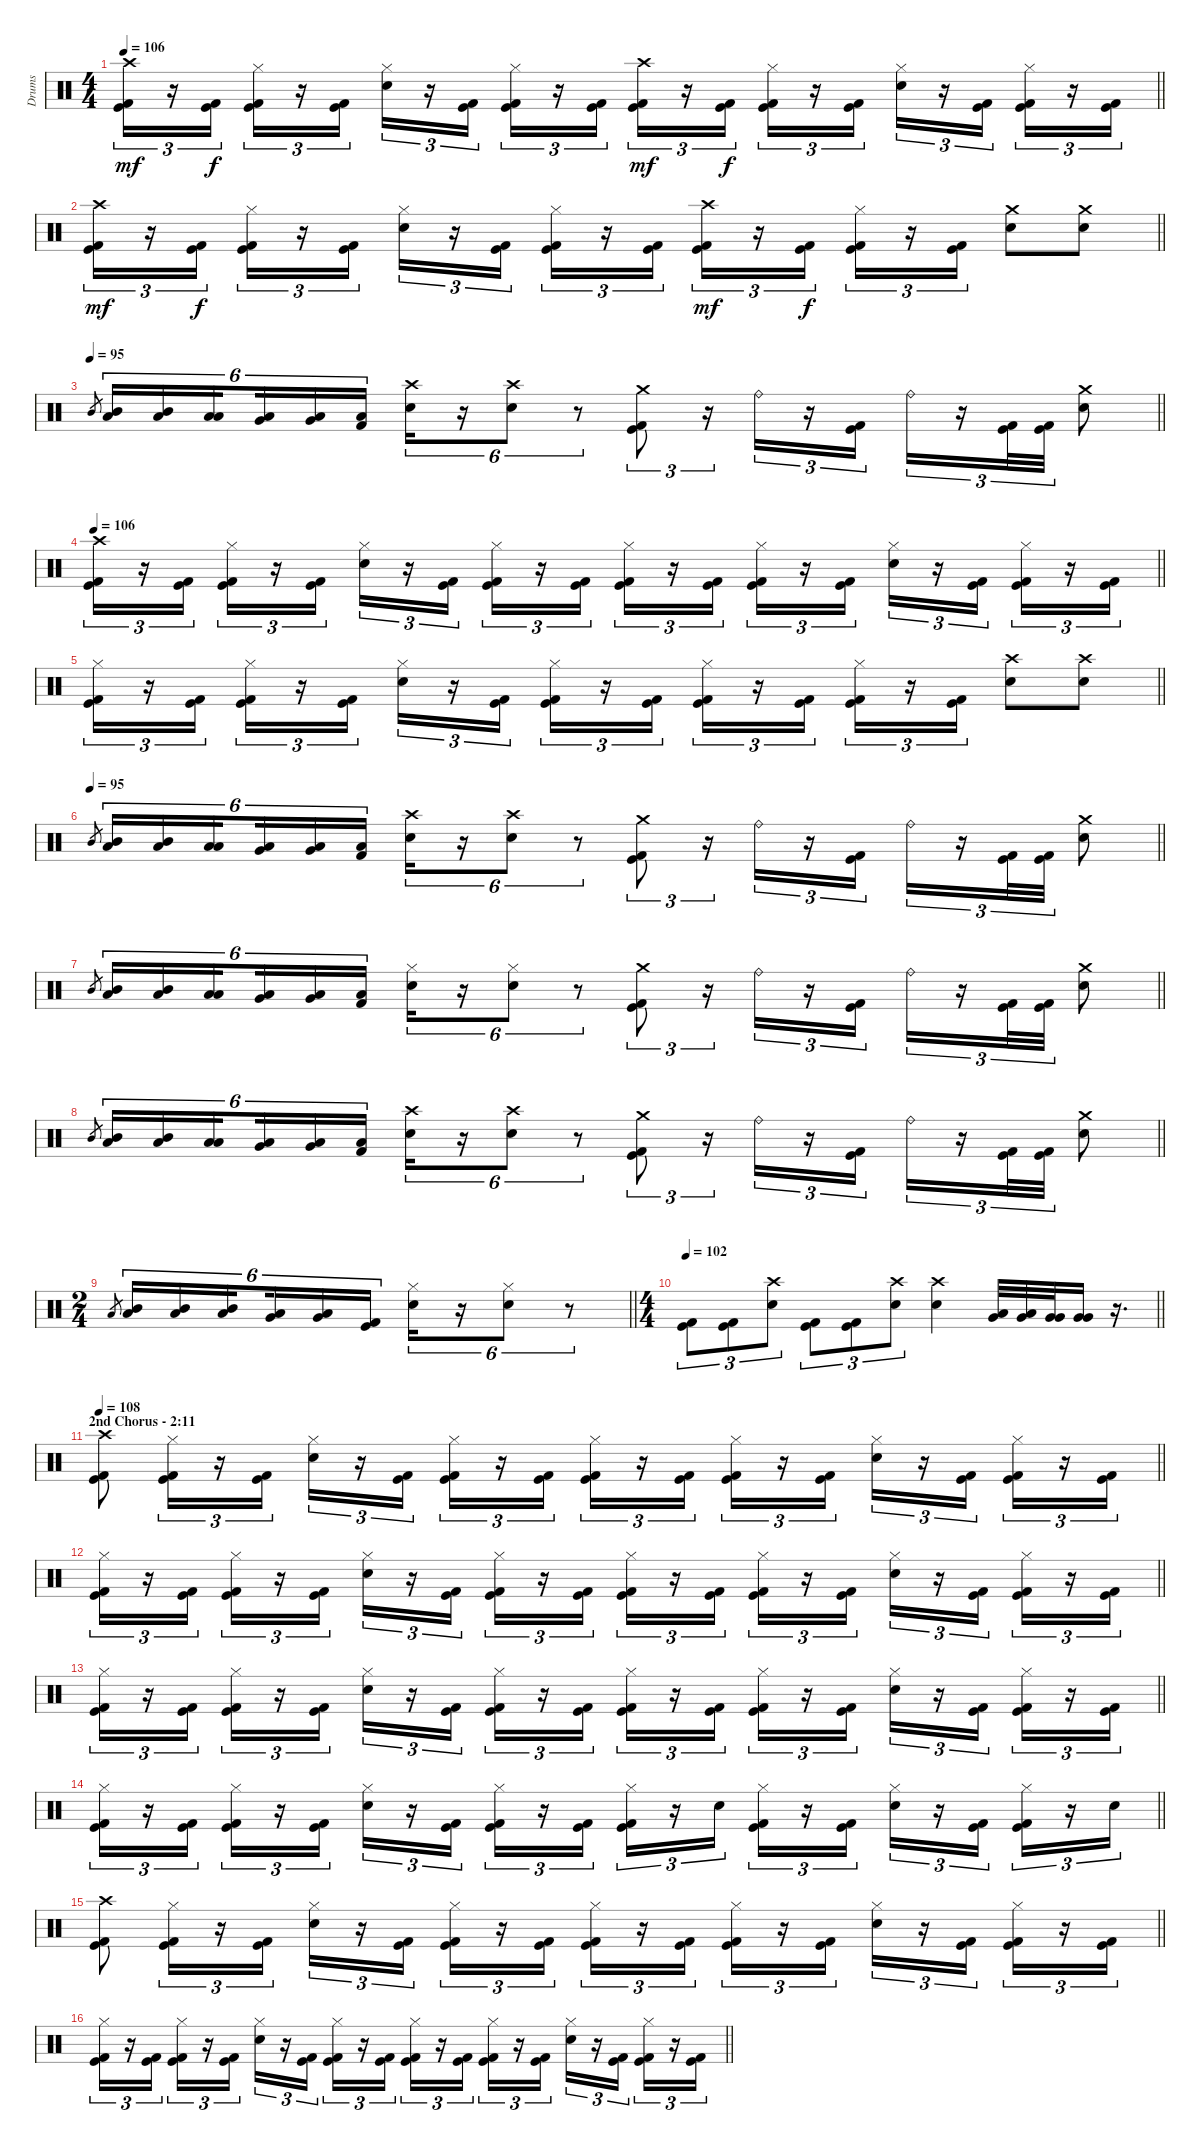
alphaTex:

\track ("Drums" "Drums") {instrument percussion}
\staff {score}
\articulation defaults
\ts (4 4)
\tempo 106
\clef neutral
\barLineRight lightlight
\ks c
("Crash high (hit)" "Kick (hit)" "Kick (hit) 2").16{tu (3 2) dy mf} r.16{tu (3 2)} ("Kick (hit)" "Kick (hit) 2").16{tu (3 2) dy f} ("Hi-Hat (closed)" "Kick (hit)" "Kick (hit) 2").16{tu (3 2)} r.16{tu (3 2)} ("Kick (hit)" "Kick (hit) 2").16{tu (3 2)} ("Hi-Hat (closed)" "Electric Snare (hit)").16{tu (3 2)} r.16{tu (3 2)} ("Kick (hit)" "Kick (hit) 2").16{tu (3 2)} ("Hi-Hat (closed)" "Kick (hit)" "Kick (hit) 2").16{tu (3 2)} r.16{tu (3 2)} ("Kick (hit)" "Kick (hit) 2").16{tu (3 2)} ("Crash high (hit)" "Kick (hit)" "Kick (hit) 2").16{tu (3 2) dy mf} r.16{tu (3 2)} ("Kick (hit)" "Kick (hit) 2").16{tu (3 2) dy f} ("Hi-Hat (closed)" "Kick (hit)" "Kick (hit) 2").16{tu (3 2)} r.16{tu (3 2)} ("Kick (hit)" "Kick (hit) 2").16{tu (3 2)} ("Hi-Hat (closed)" "Electric Snare (hit)").16{tu (3 2)} r.16{tu (3 2)} ("Kick (hit)" "Kick (hit) 2").16{tu (3 2)} ("Hi-Hat (closed)" "Kick (hit)" "Kick (hit) 2").16{tu (3 2)} r.16{tu (3 2)} ("Kick (hit)" "Kick (hit) 2").16{tu (3 2)} |
\barLineRight lightlight
("Crash high (hit)" "Kick (hit)" "Kick (hit) 2").16{tu (3 2) dy mf} r.16{tu (3 2)} ("Kick (hit)" "Kick (hit) 2").16{tu (3 2) dy f} ("Hi-Hat (closed)" "Kick (hit)" "Kick (hit) 2").16{tu (3 2)} r.16{tu (3 2)} ("Kick (hit)" "Kick (hit) 2").16{tu (3 2)} ("Hi-Hat (closed)" "Electric Snare (hit)").16{tu (3 2)} r.16{tu (3 2)} ("Kick (hit)" "Kick (hit) 2").16{tu (3 2)} ("Hi-Hat (closed)" "Kick (hit)" "Kick (hit) 2").16{tu (3 2)} r.16{tu (3 2)} ("Kick (hit)" "Kick (hit) 2").16{tu (3 2)} ("Crash high (hit)" "Kick (hit)" "Kick (hit) 2").16{tu (3 2) dy mf} r.16{tu (3 2)} ("Kick (hit)" "Kick (hit) 2").16{tu (3 2) dy f} ("Hi-Hat (closed)" "Kick (hit)" "Kick (hit) 2").16{tu (3 2)} r.16{tu (3 2)} ("Kick (hit)" "Kick (hit) 2").16{tu (3 2)} ("Crash medium (hit)" "Electric Snare (hit)").8 ("Crash medium (hit)" "Electric Snare (hit)").8 |
\tempo 95
\barLineRight lightlight "Mid Tom (hit)".8{gr}
("Mid Tom (hit)" "Low Tom (hit)").16{tu (6 4)} ("Mid Tom (hit)" "Low Tom (hit)").16{tu (6 4)} ("Low Tom (hit)" "Low Tom (hit)").16{tu (6 4) beam splitsecondary} ("Very Low Tom (hit)" "Low Tom (hit)").16{tu (6 4)} ("Very Low Tom (hit)" "Low Tom (hit)").16{tu (6 4)} ("Low Floor Tom (hit)" "Kick (hit) 2").16{tu (6 4)} ("Crash high (hit)" "Electric Snare (hit)").16{tu (6 4)} r.16{tu (6 4)} ("Crash high (hit)" "Electric Snare (hit)").8{tu (6 4)} r.8{tu (6 4)} ("Crash medium (hit)" "Kick (hit)" "Kick (hit) 2").8{tu (3 2)} r.16{tu (3 2)} "Ride (bell)".16{tu (3 2)} r.16{tu (3 2)} ("Kick (hit)" "Kick (hit) 2").16{tu (3 2)} "Ride (bell)".16{tu (3 2)} r.16{tu (3 2)} ("Kick (hit)" "Kick (hit) 2").32{tu (3 2)} ("Kick (hit)" "Kick (hit) 2").32{tu (3 2)} ("Crash medium (hit)" "Electric Snare (hit)").8 |
\tempo 106
\barLineRight lightlight
("Crash high (hit)" "Kick (hit)" "Kick (hit) 2").16{tu (3 2)} r.16{tu (3 2)} ("Kick (hit)" "Kick (hit) 2").16{tu (3 2)} ("Hi-Hat (closed)" "Kick (hit)" "Kick (hit) 2").16{tu (3 2)} r.16{tu (3 2)} ("Kick (hit)" "Kick (hit) 2").16{tu (3 2)} ("Hi-Hat (closed)" "Electric Snare (hit)").16{tu (3 2)} r.16{tu (3 2)} ("Kick (hit)" "Kick (hit) 2").16{tu (3 2)} ("Hi-Hat (closed)" "Kick (hit)" "Kick (hit) 2").16{tu (3 2)} r.16{tu (3 2)} ("Kick (hit)" "Kick (hit) 2").16{tu (3 2)} ("Hi-Hat (closed)" "Kick (hit)" "Kick (hit) 2").16{tu (3 2)} r.16{tu (3 2)} ("Kick (hit)" "Kick (hit) 2").16{tu (3 2)} ("Hi-Hat (closed)" "Kick (hit)" "Kick (hit) 2").16{tu (3 2)} r.16{tu (3 2)} ("Kick (hit)" "Kick (hit) 2").16{tu (3 2)} ("Hi-Hat (closed)" "Electric Snare (hit)").16{tu (3 2)} r.16{tu (3 2)} ("Kick (hit)" "Kick (hit) 2").16{tu (3 2)} ("Hi-Hat (closed)" "Kick (hit)" "Kick (hit) 2").16{tu (3 2)} r.16{tu (3 2)} ("Kick (hit)" "Kick (hit) 2").16{tu (3 2)} |
\barLineRight lightlight
("Hi-Hat (closed)" "Kick (hit)" "Kick (hit) 2").16{tu (3 2)} r.16{tu (3 2)} ("Kick (hit)" "Kick (hit) 2").16{tu (3 2)} ("Hi-Hat (closed)" "Kick (hit)" "Kick (hit) 2").16{tu (3 2)} r.16{tu (3 2)} ("Kick (hit)" "Kick (hit) 2").16{tu (3 2)} ("Hi-Hat (closed)" "Electric Snare (hit)").16{tu (3 2)} r.16{tu (3 2)} ("Kick (hit)" "Kick (hit) 2").16{tu (3 2)} ("Hi-Hat (closed)" "Kick (hit)" "Kick (hit) 2").16{tu (3 2)} r.16{tu (3 2)} ("Kick (hit)" "Kick (hit) 2").16{tu (3 2)} ("Hi-Hat (closed)" "Kick (hit)" "Kick (hit) 2").16{tu (3 2)} r.16{tu (3 2)} ("Kick (hit)" "Kick (hit) 2").16{tu (3 2)} ("Hi-Hat (closed)" "Kick (hit)" "Kick (hit) 2").16{tu (3 2)} r.16{tu (3 2)} ("Kick (hit)" "Kick (hit) 2").16{tu (3 2)} ("Crash high (hit)" "Electric Snare (hit)").8 ("Crash high (hit)" "Electric Snare (hit)").8 |
\tempo 95
\barLineRight lightlight "Mid Tom (hit)".8{gr}
("Mid Tom (hit)" "Low Tom (hit)").16{tu (6 4)} ("Mid Tom (hit)" "Low Tom (hit)").16{tu (6 4)} ("Low Tom (hit)" "Low Tom (hit)").16{tu (6 4) beam splitsecondary} ("Very Low Tom (hit)" "Low Tom (hit)").16{tu (6 4)} ("Very Low Tom (hit)" "Low Tom (hit)").16{tu (6 4)} ("Low Floor Tom (hit)" "Kick (hit) 2").16{tu (6 4)} ("Crash high (hit)" "Electric Snare (hit)").16{tu (6 4)} r.16{tu (6 4)} ("Crash high (hit)" "Electric Snare (hit)").8{tu (6 4)} r.8{tu (6 4)} ("Crash medium (hit)" "Kick (hit)" "Kick (hit) 2").8{tu (3 2)} r.16{tu (3 2)} "Ride (bell)".16{tu (3 2)} r.16{tu (3 2)} ("Kick (hit)" "Kick (hit) 2").16{tu (3 2)} "Ride (bell)".16{tu (3 2)} r.16{tu (3 2)} ("Kick (hit)" "Kick (hit) 2").32{tu (3 2)} ("Kick (hit)" "Kick (hit) 2").32{tu (3 2)} ("Crash medium (hit)" "Electric Snare (hit)").8 |
\barLineRight lightlight "Mid Tom (hit)".8{gr}
("Mid Tom (hit)" "Low Tom (hit)").16{tu (6 4)} ("Mid Tom (hit)" "Low Tom (hit)").16{tu (6 4)} ("Low Tom (hit)" "Low Tom (hit)").16{tu (6 4) beam splitsecondary} ("Very Low Tom (hit)" "Low Tom (hit)").16{tu (6 4)} ("Very Low Tom (hit)" "Low Tom (hit)").16{tu (6 4)} ("Low Floor Tom (hit)" "Kick (hit) 2").16{tu (6 4)} ("Hi-Hat (closed)" "Electric Snare (hit)").16{tu (6 4)} r.16{tu (6 4)} ("Hi-Hat (closed)" "Electric Snare (hit)").8{tu (6 4)} r.8{tu (6 4)} ("Crash medium (hit)" "Kick (hit)" "Kick (hit) 2").8{tu (3 2)} r.16{tu (3 2)} "Ride (bell)".16{tu (3 2)} r.16{tu (3 2)} ("Kick (hit)" "Kick (hit) 2").16{tu (3 2)} "Ride (bell)".16{tu (3 2)} r.16{tu (3 2)} ("Kick (hit)" "Kick (hit) 2").32{tu (3 2)} ("Kick (hit)" "Kick (hit) 2").32{tu (3 2)} ("Crash medium (hit)" "Electric Snare (hit)").8 |
\barLineRight lightlight "Mid Tom (hit)".8{gr}
("Mid Tom (hit)" "Low Tom (hit)").16{tu (6 4)} ("Mid Tom (hit)" "Low Tom (hit)").16{tu (6 4)} ("Low Tom (hit)" "Low Tom (hit)").16{tu (6 4) beam splitsecondary} ("Very Low Tom (hit)" "Low Tom (hit)").16{tu (6 4)} ("Very Low Tom (hit)" "Low Tom (hit)").16{tu (6 4)} ("Low Floor Tom (hit)" "Kick (hit) 2").16{tu (6 4)} ("Crash high (hit)" "Electric Snare (hit)").16{tu (6 4)} r.16{tu (6 4)} ("Crash high (hit)" "Electric Snare (hit)").8{tu (6 4)} r.8{tu (6 4)} ("Crash medium (hit)" "Kick (hit)" "Kick (hit) 2").8{tu (3 2)} r.16{tu (3 2)} "Ride (bell)".16{tu (3 2)} r.16{tu (3 2)} ("Kick (hit)" "Kick (hit) 2").16{tu (3 2)} "Ride (bell)".16{tu (3 2)} r.16{tu (3 2)} ("Kick (hit)" "Kick (hit) 2").32{tu (3 2)} ("Kick (hit)" "Kick (hit) 2").32{tu (3 2)} ("Crash medium (hit)" "Electric Snare (hit)").8 |
\ts (2 4)
\barLineRight lightlight "Low Tom (hit)".8{gr}
("Mid Tom (hit)" "Low Tom (hit)").16{tu (6 4)} ("Mid Tom (hit)" "Low Tom (hit)").16{tu (6 4)} ("Mid Tom (hit)" "Low Tom (hit)").16{tu (6 4) beam splitsecondary} ("Very Low Tom (hit)" "Low Tom (hit)").16{tu (6 4)} ("Very Low Tom (hit)" "Low Tom (hit)").16{tu (6 4)} ("Kick (hit)" "Kick (hit) 2").16{tu (6 4)} ("Hi-Hat (closed)" "Electric Snare (hit)").16{tu (6 4)} r.16{tu (6 4)} ("Hi-Hat (closed)" "Electric Snare (hit)").8{tu (6 4)} r.8{tu (6 4)} |
\ts (4 4)
\tempo 102
\barLineRight lightlight
("Kick (hit)" "Kick (hit) 2").8{tu (3 2)} ("Kick (hit)" "Kick (hit) 2").8{tu (3 2)} ("Crash high (hit)" "Electric Snare (hit)").8{tu (3 2)} ("Kick (hit)" "Kick (hit) 2").8{tu (3 2)} ("Kick (hit)" "Kick (hit) 2").8{tu (3 2)} ("Crash high (hit)" "Electric Snare (hit)").8{tu (3 2)} ("Crash high (hit)" "Electric Snare (hit)").4 ("Low Tom (hit)" "Very Low Tom (hit)").32 ("Low Tom (hit)" "Very Low Tom (hit)").32 ("Very Low Tom (hit)" "Very Low Tom (hit)").32 ("Very Low Tom (hit)" "Very Low Tom (hit)").16 r.16{d} |
\section ("" "2nd Chorus - 2:11")
\tempo 108
\barLineRight lightlight
("Crash high (hit)" "Kick (hit)" "Kick (hit) 2").8 ("Hi-Hat (closed)" "Kick (hit)" "Kick (hit) 2").16{tu (3 2)} r.16{tu (3 2)} ("Kick (hit)" "Kick (hit) 2").16{tu (3 2)} ("Hi-Hat (closed)" "Electric Snare (hit)").16{tu (3 2)} r.16{tu (3 2)} ("Kick (hit)" "Kick (hit) 2").16{tu (3 2)} ("Hi-Hat (closed)" "Kick (hit)" "Kick (hit) 2").16{tu (3 2)} r.16{tu (3 2)} ("Kick (hit)" "Kick (hit) 2").16{tu (3 2)} ("Hi-Hat (closed)" "Kick (hit)" "Kick (hit) 2").16{tu (3 2)} r.16{tu (3 2)} ("Kick (hit)" "Kick (hit) 2").16{tu (3 2)} ("Hi-Hat (closed)" "Kick (hit)" "Kick (hit) 2").16{tu (3 2)} r.16{tu (3 2)} ("Kick (hit)" "Kick (hit) 2").16{tu (3 2)} ("Hi-Hat (closed)" "Electric Snare (hit)").16{tu (3 2)} r.16{tu (3 2)} ("Kick (hit)" "Kick (hit) 2").16{tu (3 2)} ("Hi-Hat (closed)" "Kick (hit)" "Kick (hit) 2").16{tu (3 2)} r.16{tu (3 2)} ("Kick (hit)" "Kick (hit) 2").16{tu (3 2)} |
\barLineRight lightlight
("Hi-Hat (closed)" "Kick (hit)" "Kick (hit) 2").16{tu (3 2)} r.16{tu (3 2)} ("Kick (hit)" "Kick (hit) 2").16{tu (3 2)} ("Hi-Hat (closed)" "Kick (hit)" "Kick (hit) 2").16{tu (3 2)} r.16{tu (3 2)} ("Kick (hit)" "Kick (hit) 2").16{tu (3 2)} ("Hi-Hat (closed)" "Electric Snare (hit)").16{tu (3 2)} r.16{tu (3 2)} ("Kick (hit)" "Kick (hit) 2").16{tu (3 2)} ("Hi-Hat (closed)" "Kick (hit)" "Kick (hit) 2").16{tu (3 2)} r.16{tu (3 2)} ("Kick (hit)" "Kick (hit) 2").16{tu (3 2)} ("Hi-Hat (closed)" "Kick (hit)" "Kick (hit) 2").16{tu (3 2)} r.16{tu (3 2)} ("Kick (hit)" "Kick (hit) 2").16{tu (3 2)} ("Hi-Hat (closed)" "Kick (hit)" "Kick (hit) 2").16{tu (3 2)} r.16{tu (3 2)} ("Kick (hit)" "Kick (hit) 2").16{tu (3 2)} ("Hi-Hat (closed)" "Electric Snare (hit)").16{tu (3 2)} r.16{tu (3 2)} ("Kick (hit)" "Kick (hit) 2").16{tu (3 2)} ("Hi-Hat (closed)" "Kick (hit)" "Kick (hit) 2").16{tu (3 2)} r.16{tu (3 2)} ("Kick (hit)" "Kick (hit) 2").16{tu (3 2)} |
\barLineRight lightlight
("Hi-Hat (closed)" "Kick (hit)" "Kick (hit) 2").16{tu (3 2)} r.16{tu (3 2)} ("Kick (hit)" "Kick (hit) 2").16{tu (3 2)} ("Hi-Hat (closed)" "Kick (hit)" "Kick (hit) 2").16{tu (3 2)} r.16{tu (3 2)} ("Kick (hit)" "Kick (hit) 2").16{tu (3 2)} ("Hi-Hat (closed)" "Electric Snare (hit)").16{tu (3 2)} r.16{tu (3 2)} ("Kick (hit)" "Kick (hit) 2").16{tu (3 2)} ("Hi-Hat (closed)" "Kick (hit)" "Kick (hit) 2").16{tu (3 2)} r.16{tu (3 2)} ("Kick (hit)" "Kick (hit) 2").16{tu (3 2)} ("Hi-Hat (closed)" "Kick (hit)" "Kick (hit) 2").16{tu (3 2)} r.16{tu (3 2)} ("Kick (hit)" "Kick (hit) 2").16{tu (3 2)} ("Hi-Hat (closed)" "Kick (hit)" "Kick (hit) 2").16{tu (3 2)} r.16{tu (3 2)} ("Kick (hit)" "Kick (hit) 2").16{tu (3 2)} ("Hi-Hat (closed)" "Electric Snare (hit)").16{tu (3 2)} r.16{tu (3 2)} ("Kick (hit)" "Kick (hit) 2").16{tu (3 2)} ("Hi-Hat (closed)" "Kick (hit)" "Kick (hit) 2").16{tu (3 2)} r.16{tu (3 2)} ("Kick (hit)" "Kick (hit) 2").16{tu (3 2)} |
\barLineRight lightlight
("Hi-Hat (closed)" "Kick (hit)" "Kick (hit) 2").16{tu (3 2)} r.16{tu (3 2)} ("Kick (hit)" "Kick (hit) 2").16{tu (3 2)} ("Hi-Hat (closed)" "Kick (hit)" "Kick (hit) 2").16{tu (3 2)} r.16{tu (3 2)} ("Kick (hit)" "Kick (hit) 2").16{tu (3 2)} ("Hi-Hat (closed)" "Electric Snare (hit)").16{tu (3 2)} r.16{tu (3 2)} ("Kick (hit)" "Kick (hit) 2").16{tu (3 2)} ("Hi-Hat (closed)" "Kick (hit)" "Kick (hit) 2").16{tu (3 2)} r.16{tu (3 2)} ("Kick (hit)" "Kick (hit) 2").16{tu (3 2)} ("Hi-Hat (closed)" "Kick (hit)" "Kick (hit) 2").16{tu (3 2)} r.16{tu (3 2)} "Electric Snare (hit)".16{tu (3 2)} ("Hi-Hat (closed)" "Kick (hit)" "Kick (hit) 2").16{tu (3 2)} r.16{tu (3 2)} ("Kick (hit)" "Kick (hit) 2").16{tu (3 2)} ("Hi-Hat (closed)" "Electric Snare (hit)").16{tu (3 2)} r.16{tu (3 2)} ("Kick (hit)" "Kick (hit) 2").16{tu (3 2)} ("Hi-Hat (closed)" "Kick (hit)" "Kick (hit) 2").16{tu (3 2)} r.16{tu (3 2)} "Electric Snare (hit)".16{tu (3 2)} |
\barLineRight lightlight
("Crash high (hit)" "Kick (hit)" "Kick (hit) 2").8 ("Hi-Hat (closed)" "Kick (hit)" "Kick (hit) 2").16{tu (3 2)} r.16{tu (3 2)} ("Kick (hit)" "Kick (hit) 2").16{tu (3 2)} ("Hi-Hat (closed)" "Electric Snare (hit)").16{tu (3 2)} r.16{tu (3 2)} ("Kick (hit)" "Kick (hit) 2").16{tu (3 2)} ("Hi-Hat (closed)" "Kick (hit)" "Kick (hit) 2").16{tu (3 2)} r.16{tu (3 2)} ("Kick (hit)" "Kick (hit) 2").16{tu (3 2)} ("Hi-Hat (closed)" "Kick (hit)" "Kick (hit) 2").16{tu (3 2)} r.16{tu (3 2)} ("Kick (hit)" "Kick (hit) 2").16{tu (3 2)} ("Hi-Hat (closed)" "Kick (hit)" "Kick (hit) 2").16{tu (3 2)} r.16{tu (3 2)} ("Kick (hit)" "Kick (hit) 2").16{tu (3 2)} ("Hi-Hat (closed)" "Electric Snare (hit)").16{tu (3 2)} r.16{tu (3 2)} ("Kick (hit)" "Kick (hit) 2").16{tu (3 2)} ("Hi-Hat (closed)" "Kick (hit)" "Kick (hit) 2").16{tu (3 2)} r.16{tu (3 2)} ("Kick (hit)" "Kick (hit) 2").16{tu (3 2)} |
\barLineRight lightlight
("Hi-Hat (closed)" "Kick (hit)" "Kick (hit) 2").16{tu (3 2)} r.16{tu (3 2)} ("Kick (hit)" "Kick (hit) 2").16{tu (3 2)} ("Hi-Hat (closed)" "Kick (hit)" "Kick (hit) 2").16{tu (3 2)} r.16{tu (3 2)} ("Kick (hit)" "Kick (hit) 2").16{tu (3 2)} ("Hi-Hat (closed)" "Electric Snare (hit)").16{tu (3 2)} r.16{tu (3 2)} ("Kick (hit)" "Kick (hit) 2").16{tu (3 2)} ("Hi-Hat (closed)" "Kick (hit)" "Kick (hit) 2").16{tu (3 2)} r.16{tu (3 2)} ("Kick (hit)" "Kick (hit) 2").16{tu (3 2)} ("Hi-Hat (closed)" "Kick (hit)" "Kick (hit) 2").16{tu (3 2)} r.16{tu (3 2)} ("Kick (hit)" "Kick (hit) 2").16{tu (3 2)} ("Hi-Hat (closed)" "Kick (hit)" "Kick (hit) 2").16{tu (3 2)} r.16{tu (3 2)} ("Kick (hit)" "Kick (hit) 2").16{tu (3 2)} ("Hi-Hat (closed)" "Electric Snare (hit)").16{tu (3 2)} r.16{tu (3 2)} ("Kick (hit)" "Kick (hit) 2").16{tu (3 2)} ("Hi-Hat (closed)" "Kick (hit)" "Kick (hit) 2").16{tu (3 2)} r.16{tu (3 2)} ("Kick (hit)" "Kick (hit) 2").16{tu (3 2)}
